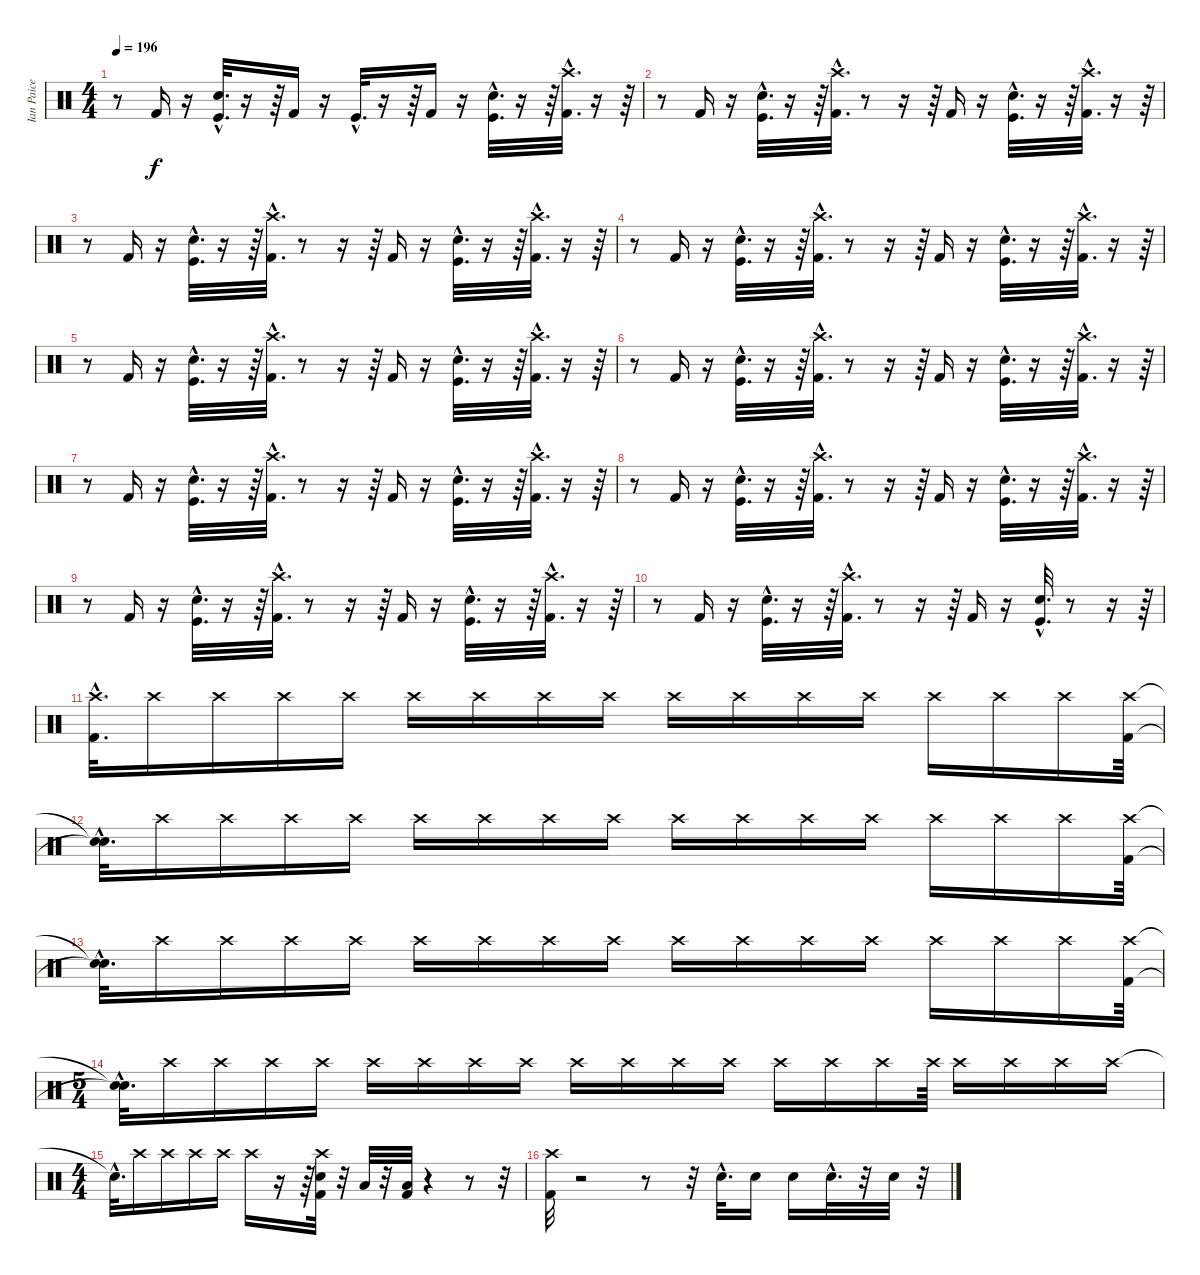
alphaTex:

\track ("Ian Paice" "Ian Paice") {instrument percussion}
\staff {score}
\articulation defaults
\ts (4 4)
\tempo 196
\clef neutral
\ks c
r.8{dy f} "Kick (hit) 2".16 r.16 ("Kick (hit)"{hac} "Snare (hit) 2"{hac}).32{d} r.16 r.64 "Kick (hit) 2".16 r.16 "Kick (hit)"{hac}.32{d} r.16 r.64 "Kick (hit) 2".16 r.16 ("Kick (hit)"{hac} "Snare (hit) 2"{hac}).32{d} r.16 r.64 ("Kick (hit) 2"{hac} "Crash high (hit)"{hac}).32{d} r.16 r.64 |
r.8 "Kick (hit) 2".16 r.16 ("Kick (hit)"{hac} "Snare (hit) 2"{hac}).32{d} r.16 r.64 ("Kick (hit) 2"{hac} "Crash high (hit)"{hac}).32{d} r.8 r.16 r.64 "Kick (hit) 2".16 r.16 ("Kick (hit)"{hac} "Snare (hit) 2"{hac}).32{d} r.16 r.64 ("Kick (hit) 2"{hac} "Crash high (hit)"{hac}).32{d} r.16 r.64 |
r.8 "Kick (hit) 2".16 r.16 ("Kick (hit)"{hac} "Snare (hit) 2"{hac}).32{d} r.16 r.64 ("Kick (hit) 2"{hac} "Crash high (hit)"{hac}).32{d} r.8 r.16 r.64 "Kick (hit) 2".16 r.16 ("Kick (hit)"{hac} "Snare (hit) 2"{hac}).32{d} r.16 r.64 ("Kick (hit) 2"{hac} "Crash high (hit)"{hac}).32{d} r.16 r.64 |
r.8 "Kick (hit) 2".16 r.16 ("Kick (hit)"{hac} "Snare (hit) 2"{hac}).32{d} r.16 r.64 ("Kick (hit) 2"{hac} "Crash high (hit)"{hac}).32{d} r.8 r.16 r.64 "Kick (hit) 2".16 r.16 ("Kick (hit)"{hac} "Snare (hit) 2"{hac}).32{d} r.16 r.64 ("Kick (hit) 2"{hac} "Crash high (hit)"{hac}).32{d} r.16 r.64 |
r.8 "Kick (hit) 2".16 r.16 ("Kick (hit)"{hac} "Snare (hit) 2"{hac}).32{d} r.16 r.64 ("Kick (hit) 2"{hac} "Crash high (hit)"{hac}).32{d} r.8 r.16 r.64 "Kick (hit) 2".16 r.16 ("Kick (hit)"{hac} "Snare (hit) 2"{hac}).32{d} r.16 r.64 ("Kick (hit) 2"{hac} "Crash high (hit)"{hac}).32{d} r.16 r.64 |
r.8 "Kick (hit) 2".16 r.16 ("Kick (hit)"{hac} "Snare (hit) 2"{hac}).32{d} r.16 r.64 ("Crash high (hit)"{hac} "Kick (hit) 2"{hac}).32{d} r.8 r.16 r.64 "Kick (hit) 2".16 r.16 ("Kick (hit)"{hac} "Snare (hit) 2"{hac}).32{d} r.16 r.64 ("Kick (hit) 2"{hac} "Crash high (hit)"{hac}).32{d} r.16 r.64 |
r.8 "Kick (hit) 2".16 r.16 ("Kick (hit)"{hac} "Snare (hit) 2"{hac}).32{d} r.16 r.64 ("Kick (hit) 2"{hac} "Crash high (hit)"{hac}).32{d} r.8 r.16 r.64 "Kick (hit) 2".16 r.16 ("Kick (hit)"{hac} "Snare (hit) 2"{hac}).32{d} r.16 r.64 ("Kick (hit) 2"{hac} "Crash high (hit)"{hac}).32{d} r.16 r.64 |
r.8 "Kick (hit) 2".16 r.16 ("Kick (hit)"{hac} "Snare (hit) 2"{hac}).32{d} r.16 r.64 ("Kick (hit) 2"{hac} "Crash high (hit)"{hac}).32{d} r.8 r.16 r.64 "Kick (hit) 2".16 r.16 ("Kick (hit)"{hac} "Snare (hit) 2"{hac}).32{d} r.16 r.64 ("Crash high (hit)"{hac} "Kick (hit) 2"{hac}).32{d} r.16 r.64 |
r.8 "Kick (hit) 2".16 r.16 ("Kick (hit)"{hac} "Snare (hit) 2"{hac}).32{d} r.16 r.64 ("Kick (hit) 2"{hac} "Crash high (hit)"{hac}).32{d} r.8 r.16 r.64 "Kick (hit) 2".16 r.16 ("Kick (hit)"{hac} "Snare (hit) 2"{hac}).32{d} r.16 r.64 ("Kick (hit) 2"{hac} "Crash high (hit)"{hac}).32{d} r.16 r.64 |
r.8 "Kick (hit) 2".16 r.16 ("Kick (hit)"{hac} "Snare (hit) 2"{hac}).32{d} r.16 r.64 ("Kick (hit) 2"{hac} "Crash high (hit)"{hac}).32{d} r.8 r.16 r.64 "Kick (hit) 2".16 r.16 ("Kick (hit)"{hac} "Snare (hit) 2"{hac}).32{d} r.8 r.16 r.64 |
("Crash high (hit)"{hac} "Kick (hit) 2"{hac}).32{d} "Crash high (hit)".16 "Crash high (hit)".16 "Crash high (hit)".16 "Crash high (hit)".16 "Crash high (hit)".16 "Crash high (hit)".16 "Crash high (hit)".16 "Crash high (hit)".16 "Crash high (hit)".16 "Crash high (hit)".16 "Crash high (hit)".16 "Crash high (hit)".16 "Crash high (hit)".16 "Crash high (hit)".16 "Crash high (hit)".16 ("Kick (hit) 2" "Crash high (hit)").64 |
("Snare (hit)"{hac t} "Snare (hit)"{hac t}).32{d} "Crash high (hit)".16 "Crash high (hit)".16 "Crash high (hit)".16 "Crash high (hit)".16 "Crash high (hit)".16 "Crash high (hit)".16 "Crash high (hit)".16 "Crash high (hit)".16 "Crash high (hit)".16 "Crash high (hit)".16 "Crash high (hit)".16 "Crash high (hit)".16 "Crash high (hit)".16 "Crash high (hit)".16 "Crash high (hit)".16 ("Kick (hit) 2" "Crash high (hit)").64 |
("Snare (hit)"{hac t} "Snare (hit)"{hac t}).32{d} "Crash high (hit)".16 "Crash high (hit)".16 "Crash high (hit)".16 "Crash high (hit)".16 "Crash high (hit)".16 "Crash high (hit)".16 "Crash high (hit)".16 "Crash high (hit)".16 "Crash high (hit)".16 "Crash high (hit)".16 "Crash high (hit)".16 "Crash high (hit)".16 "Crash high (hit)".16 "Crash high (hit)".16 "Crash high (hit)".16 ("Kick (hit) 2" "Crash high (hit)").64 |
\ts (5 4)
("Snare (hit)"{hac t} "Snare (hit)"{hac t}).32{d} "Crash high (hit)".16 "Crash high (hit)".16 "Crash high (hit)".16 "Crash high (hit)".16 "Crash high (hit)".16 "Crash high (hit)".16 "Crash high (hit)".16 "Crash high (hit)".16 "Crash high (hit)".16 "Crash high (hit)".16 "Crash high (hit)".16 "Crash high (hit)".16 "Crash high (hit)".16 "Crash high (hit)".16 "Crash high (hit)".16 "Crash high (hit)".64 "Crash high (hit)".16 "Crash high (hit)".16 "Crash high (hit)".16 "Crash high (hit)".16 |
\ts (4 4)
"Snare (hit)"{hac t}.32{d} "Crash high (hit)".16 "Crash high (hit)".16 "Crash high (hit)".16 "Crash high (hit)".16 "Crash high (hit)".16 r.16 r.64 ("Crash high (hit)" "Kick (hit) 2" "Snare (hit) 2").32 r.32 "Low Tom (hit)".32 r.32 ("Kick (hit) 2" "Low Floor Tom (hit)").32 r.4 r.8 r.32 |
("Crash high (hit)" "Kick (hit) 2").32 r.2 r.8 r.32 "Snare (hit) 2"{hac}.32{d} "Snare (hit) 2".16 "Snare (hit) 2".16 "Snare (hit) 2"{hac}.32{d} r.32 "Snare (hit) 2".32 r.32
